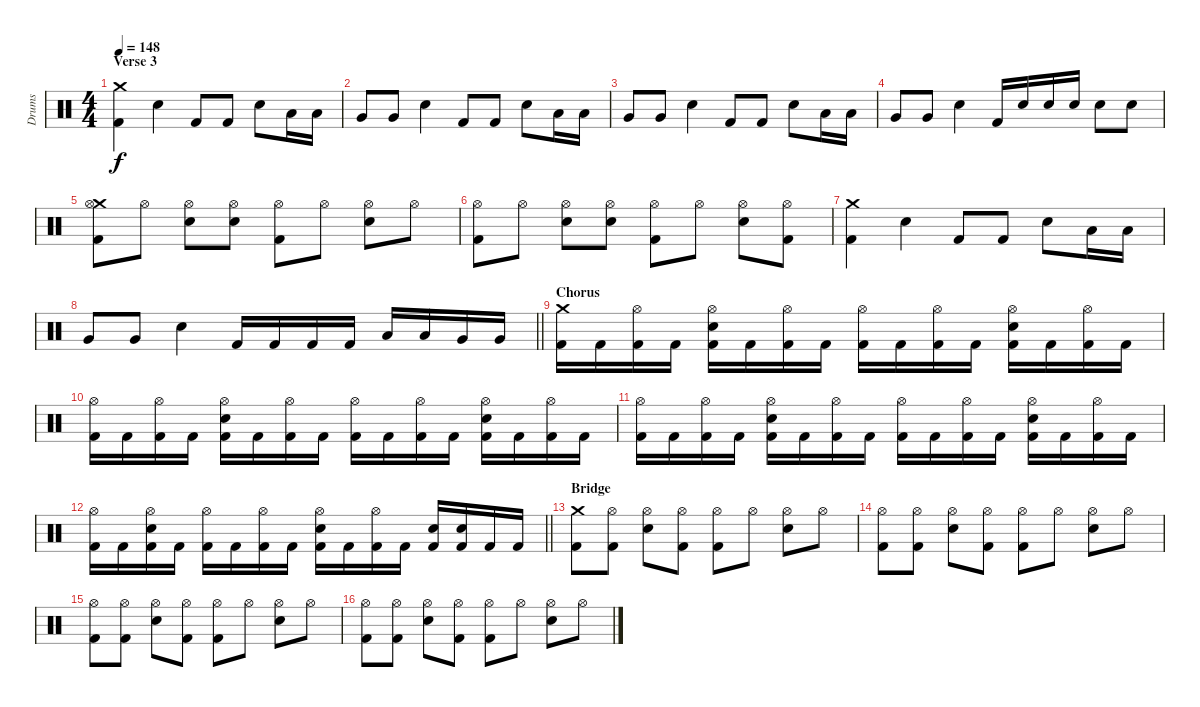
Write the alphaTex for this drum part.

\track ("Drums" "Drums") {instrument percussion}
\staff {score}
\articulation defaults
\ts (4 4)
\section ("" "Verse 3")
\tempo 148
\clef neutral
\ks c
("Crash medium (hit)" "Kick (hit) 2").4{dy f} "Snare (hit) 2".4 "Kick (hit) 2".8 "Kick (hit) 2".8 "Snare (hit) 2".8 "Low Tom (hit)".16 "Low Tom (hit)".16 |
"Very Low Tom (hit)".8 "Very Low Tom (hit)".8 "Snare (hit) 2".4 "Kick (hit) 2".8 "Kick (hit) 2".8 "Snare (hit) 2".8 "Low Tom (hit)".16 "Low Tom (hit)".16 |
"Very Low Tom (hit)".8 "Very Low Tom (hit)".8 "Snare (hit) 2".4 "Kick (hit) 2".8 "Kick (hit) 2".8 "Snare (hit) 2".8 "Low Tom (hit)".16 "Low Tom (hit)".16 |
"Very Low Tom (hit)".8 "Very Low Tom (hit)".8 "Snare (hit) 2".4 "Kick (hit) 2".16 "Snare (hit) 2".16 "Snare (hit) 2".16 "Snare (hit) 2".16 "Snare (hit) 2".8 "Snare (hit) 2".8 |
("Crash medium (hit)" "Hi-Hat (open)" "Kick (hit) 2").8 "Hi-Hat (open)".8 ("Hi-Hat (open)" "Snare (hit) 2").8 ("Hi-Hat (open)" "Snare (hit) 2").8 ("Hi-Hat (open)" "Kick (hit) 2").8 "Hi-Hat (open)".8 ("Hi-Hat (open)" "Snare (hit) 2").8 "Hi-Hat (open)".8 |
("Hi-Hat (open)" "Kick (hit) 2").8 "Hi-Hat (open)".8 ("Hi-Hat (open)" "Snare (hit) 2").8 ("Hi-Hat (open)" "Snare (hit) 2").8 ("Hi-Hat (open)" "Kick (hit) 2").8 "Hi-Hat (open)".8 ("Hi-Hat (open)" "Snare (hit) 2").8 ("Hi-Hat (open)" "Kick (hit) 2").8 |
("Crash medium (hit)" "Kick (hit) 2").4 "Snare (hit) 2".4 "Kick (hit) 2".8 "Kick (hit) 2".8 "Snare (hit) 2".8 "Low Tom (hit)".16 "Low Tom (hit)".16 |
\barLineRight lightlight "Very Low Tom (hit)".8 "Very Low Tom (hit)".8 "Snare (hit) 2".4 "Kick (hit) 2".16 "Kick (hit) 2".16 "Kick (hit) 2".16 "Kick (hit) 2".16 "Low Tom (hit)".16 "Low Tom (hit)".16 "Very Low Tom (hit)".16 "Very Low Tom (hit)".16
|
\section ("" "Chorus")
("Crash medium (hit)" "Kick (hit) 2").16 "Kick (hit) 2".16 ("Hi-Hat (open)" "Kick (hit) 2").16 "Kick (hit) 2".16 ("Hi-Hat (open)" "Snare (hit) 2" "Kick (hit) 2").16 "Kick (hit) 2".16 ("Hi-Hat (open)" "Kick (hit) 2").16 "Kick (hit) 2".16 ("Hi-Hat (open)" "Kick (hit) 2").16 "Kick (hit) 2".16 ("Hi-Hat (open)" "Kick (hit) 2").16 "Kick (hit) 2".16 ("Hi-Hat (open)" "Snare (hit) 2" "Kick (hit) 2").16 "Kick (hit) 2".16 ("Hi-Hat (open)" "Kick (hit) 2").16 "Kick (hit) 2".16 |
("Hi-Hat (open)" "Kick (hit) 2").16 "Kick (hit) 2".16 ("Hi-Hat (open)" "Kick (hit) 2").16 "Kick (hit) 2".16 ("Hi-Hat (open)" "Snare (hit) 2" "Kick (hit) 2").16 "Kick (hit) 2".16 ("Hi-Hat (open)" "Kick (hit) 2").16 "Kick (hit) 2".16 ("Hi-Hat (open)" "Kick (hit) 2").16 "Kick (hit) 2".16 ("Hi-Hat (open)" "Kick (hit) 2").16 "Kick (hit) 2".16 ("Hi-Hat (open)" "Snare (hit) 2" "Kick (hit) 2").16 "Kick (hit) 2".16 ("Hi-Hat (open)" "Kick (hit) 2").16 "Kick (hit) 2".16 |
("Hi-Hat (open)" "Kick (hit) 2").16 "Kick (hit) 2".16 ("Hi-Hat (open)" "Kick (hit) 2").16 "Kick (hit) 2".16 ("Hi-Hat (open)" "Snare (hit) 2" "Kick (hit) 2").16 "Kick (hit) 2".16 ("Hi-Hat (open)" "Kick (hit) 2").16 "Kick (hit) 2".16 ("Hi-Hat (open)" "Kick (hit) 2").16 "Kick (hit) 2".16 ("Hi-Hat (open)" "Kick (hit) 2").16 "Kick (hit) 2".16 ("Hi-Hat (open)" "Snare (hit) 2" "Kick (hit) 2").16 "Kick (hit) 2".16 ("Hi-Hat (open)" "Kick (hit) 2").16 "Kick (hit) 2".16 |
\barLineRight lightlight
("Hi-Hat (open)" "Kick (hit) 2").16 "Kick (hit) 2".16 ("Hi-Hat (open)" "Snare (hit) 2" "Kick (hit) 2").16 "Kick (hit) 2".16 ("Hi-Hat (open)" "Kick (hit) 2").16 "Kick (hit) 2".16 ("Hi-Hat (open)" "Kick (hit) 2").16 "Kick (hit) 2".16 ("Hi-Hat (open)" "Snare (hit) 2" "Kick (hit) 2").16 "Kick (hit) 2".16 ("Hi-Hat (open)" "Kick (hit) 2").16 "Kick (hit) 2".16 ("Snare (hit) 2" "Kick (hit) 2").16 ("Snare (hit) 2" "Kick (hit) 2").16 "Kick (hit) 2".16 "Kick (hit) 2".16 |
\section ("" "Bridge")
("Crash medium (hit)" "Kick (hit) 2").8 ("Hi-Hat (open)" "Kick (hit) 2").8 ("Hi-Hat (open)" "Snare (hit) 2").8 ("Hi-Hat (open)" "Kick (hit) 2").8 ("Hi-Hat (open)" "Kick (hit) 2").8 "Hi-Hat (open)".8 ("Hi-Hat (open)" "Snare (hit) 2").8 "Hi-Hat (open)".8 |
("Hi-Hat (open)" "Kick (hit) 2").8 ("Hi-Hat (open)" "Kick (hit) 2").8 ("Hi-Hat (open)" "Snare (hit) 2").8 ("Hi-Hat (open)" "Kick (hit) 2").8 ("Hi-Hat (open)" "Kick (hit) 2").8 "Hi-Hat (open)".8 ("Hi-Hat (open)" "Snare (hit) 2").8 "Hi-Hat (open)".8 |
("Hi-Hat (open)" "Kick (hit) 2").8 ("Hi-Hat (open)" "Kick (hit) 2").8 ("Hi-Hat (open)" "Snare (hit) 2").8 ("Hi-Hat (open)" "Kick (hit) 2").8 ("Hi-Hat (open)" "Kick (hit) 2").8 "Hi-Hat (open)".8 ("Hi-Hat (open)" "Snare (hit) 2").8 "Hi-Hat (open)".8 |
("Hi-Hat (open)" "Kick (hit) 2").8 ("Hi-Hat (open)" "Kick (hit) 2").8 ("Hi-Hat (open)" "Snare (hit) 2").8 ("Hi-Hat (open)" "Kick (hit) 2").8 ("Hi-Hat (open)" "Kick (hit) 2").8 "Hi-Hat (open)".8 ("Hi-Hat (open)" "Snare (hit) 2").8 "Hi-Hat (open)".8
